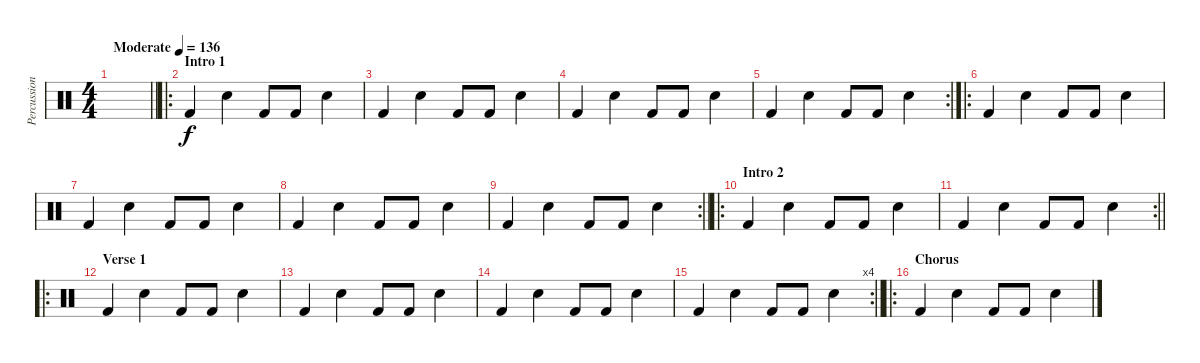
\track ("Percussion" "Percussion") {instrument percussion}
\staff {score}
\articulation defaults
\ts (4 4)
\tempo (136 "Moderate")
\clef neutral
\barLineRight lightlight
\ks c
|
\ro
\section ("" "Intro 1")
"Kick (hit) 2".4 "Electric Snare (hit)".4 "Kick (hit) 2".8 "Kick (hit) 2".8 "Electric Snare (hit)".4 |
"Kick (hit) 2".4 "Electric Snare (hit)".4 "Kick (hit) 2".8 "Kick (hit) 2".8 "Electric Snare (hit)".4 |
"Kick (hit) 2".4 "Electric Snare (hit)".4 "Kick (hit) 2".8 "Kick (hit) 2".8 "Electric Snare (hit)".4 |
\rc 2 "Kick (hit) 2".4 "Electric Snare (hit)".4 "Kick (hit) 2".8 "Kick (hit) 2".8 "Electric Snare (hit)".4
|
\ro "Kick (hit) 2".4 "Electric Snare (hit)".4 "Kick (hit) 2".8 "Kick (hit) 2".8 "Electric Snare (hit)".4
|
"Kick (hit) 2".4 "Electric Snare (hit)".4 "Kick (hit) 2".8 "Kick (hit) 2".8 "Electric Snare (hit)".4 |
"Kick (hit) 2".4 "Electric Snare (hit)".4 "Kick (hit) 2".8 "Kick (hit) 2".8 "Electric Snare (hit)".4 |
\rc 2
\barLineRight lightlight "Kick (hit) 2".4 "Electric Snare (hit)".4 "Kick (hit) 2".8 "Kick (hit) 2".8 "Electric Snare (hit)".4
|
\ro
\section ("" "Intro 2")
"Kick (hit) 2".4 "Electric Snare (hit)".4 "Kick (hit) 2".8 "Kick (hit) 2".8 "Electric Snare (hit)".4 |
\rc 2
\barLineRight lightlight "Kick (hit) 2".4 "Electric Snare (hit)".4 "Kick (hit) 2".8 "Kick (hit) 2".8 "Electric Snare (hit)".4
|
\ro
\section ("" "Verse 1")
"Kick (hit) 2".4 "Electric Snare (hit)".4 "Kick (hit) 2".8 "Kick (hit) 2".8 "Electric Snare (hit)".4 |
"Kick (hit) 2".4 "Electric Snare (hit)".4 "Kick (hit) 2".8 "Kick (hit) 2".8 "Electric Snare (hit)".4 |
"Kick (hit) 2".4 "Electric Snare (hit)".4 "Kick (hit) 2".8 "Kick (hit) 2".8 "Electric Snare (hit)".4 |
\rc 4
\barLineRight lightlight "Kick (hit) 2".4 "Electric Snare (hit)".4 "Kick (hit) 2".8 "Kick (hit) 2".8 "Electric Snare (hit)".4
|
\ro
\section ("" "Chorus")
"Kick (hit) 2".4 "Electric Snare (hit)".4 "Kick (hit) 2".8 "Kick (hit) 2".8 "Electric Snare (hit)".4
